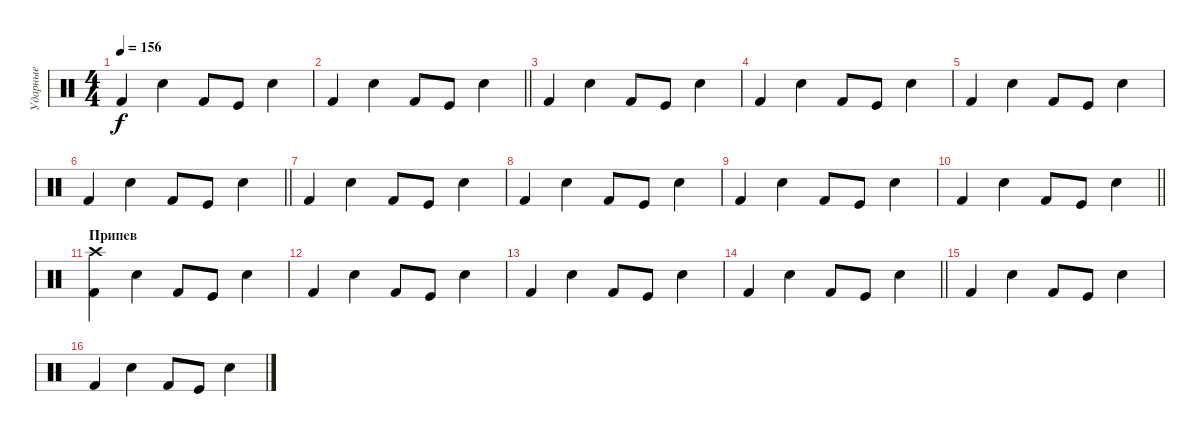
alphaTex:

\track ("Ударные" "Ударные") {instrument percussion}
\staff {score}
\articulation defaults
\ts (4 4)
\tempo 156
\clef neutral
\ks c "Kick (hit) 2".4{dy f} "Snare (hit) 2".4 "Kick (hit) 2".8 "Kick (hit)".8 "Snare (hit) 2".4
|
\barLineRight lightlight "Kick (hit) 2".4 "Snare (hit) 2".4 "Kick (hit) 2".8 "Kick (hit)".8 "Snare (hit) 2".4
|
"Kick (hit) 2".4 "Snare (hit) 2".4 "Kick (hit) 2".8 "Kick (hit)".8 "Snare (hit) 2".4 |
"Kick (hit) 2".4 "Snare (hit) 2".4 "Kick (hit) 2".8 "Kick (hit)".8 "Snare (hit) 2".4 |
"Kick (hit) 2".4 "Snare (hit) 2".4 "Kick (hit) 2".8 "Kick (hit)".8 "Snare (hit) 2".4 |
\barLineRight lightlight "Kick (hit) 2".4 "Snare (hit) 2".4 "Kick (hit) 2".8 "Kick (hit)".8 "Snare (hit) 2".4
|
"Kick (hit) 2".4 "Snare (hit) 2".4 "Kick (hit) 2".8 "Kick (hit)".8 "Snare (hit) 2".4 |
"Kick (hit) 2".4 "Snare (hit) 2".4 "Kick (hit) 2".8 "Kick (hit)".8 "Snare (hit) 2".4 |
"Kick (hit) 2".4 "Snare (hit) 2".4 "Kick (hit) 2".8 "Kick (hit)".8 "Snare (hit) 2".4 |
\barLineRight lightlight "Kick (hit) 2".4 "Snare (hit) 2".4 "Kick (hit) 2".8 "Kick (hit)".8 "Snare (hit) 2".4
|
\section ("" "Припев")
("Kick (hit) 2" "Crash high (hit)").4 "Snare (hit) 2".4 "Kick (hit) 2".8 "Kick (hit)".8 "Snare (hit) 2".4 |
"Kick (hit) 2".4 "Snare (hit) 2".4 "Kick (hit) 2".8 "Kick (hit)".8 "Snare (hit) 2".4 |
"Kick (hit) 2".4 "Snare (hit) 2".4 "Kick (hit) 2".8 "Kick (hit)".8 "Snare (hit) 2".4 |
\barLineRight lightlight "Kick (hit) 2".4 "Snare (hit) 2".4 "Kick (hit) 2".8 "Kick (hit)".8 "Snare (hit) 2".4
|
"Kick (hit) 2".4 "Snare (hit) 2".4 "Kick (hit) 2".8 "Kick (hit)".8 "Snare (hit) 2".4 |
"Kick (hit) 2".4 "Snare (hit) 2".4 "Kick (hit) 2".8 "Kick (hit)".8 "Snare (hit) 2".4
